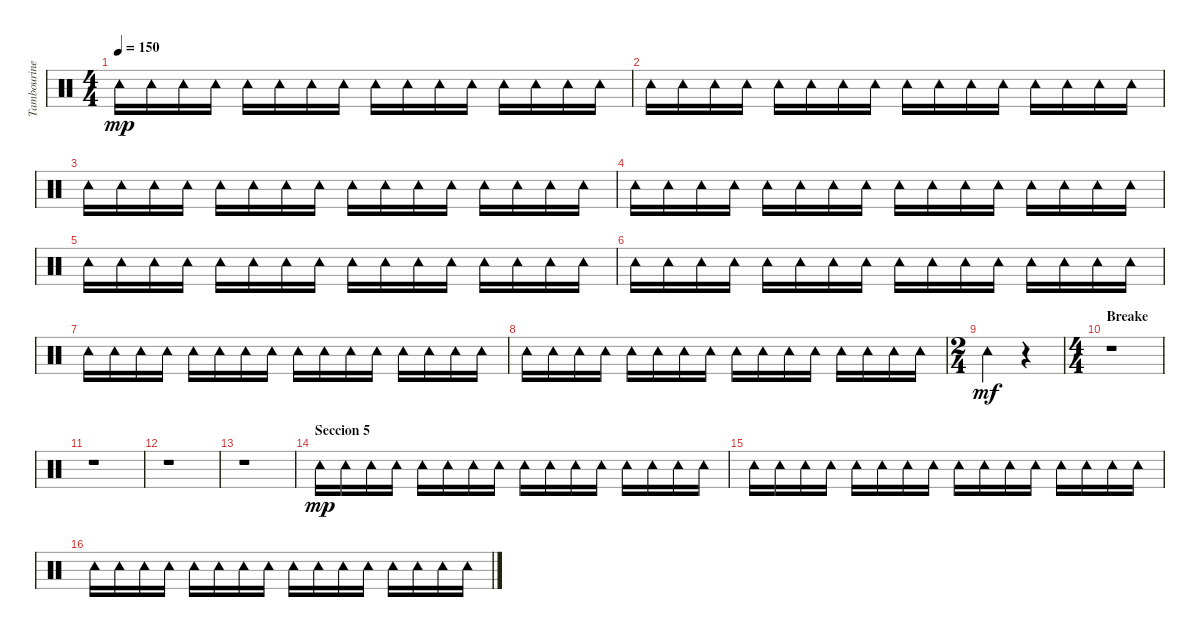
\track ("Tambourine" "Tambourine") {instrument percussion}
\staff {score}
\articulation defaults
\ts (4 4)
\tempo 150
\clef neutral
\ks c "Tambourine (hit)".16{dy mp} "Tambourine (hit)".16 "Tambourine (hit)".16 "Tambourine (hit)".16 "Tambourine (hit)".16 "Tambourine (hit)".16 "Tambourine (hit)".16 "Tambourine (hit)".16 "Tambourine (hit)".16 "Tambourine (hit)".16 "Tambourine (hit)".16 "Tambourine (hit)".16 "Tambourine (hit)".16 "Tambourine (hit)".16 "Tambourine (hit)".16 "Tambourine (hit)".16
|
"Tambourine (hit)".16 "Tambourine (hit)".16 "Tambourine (hit)".16 "Tambourine (hit)".16 "Tambourine (hit)".16 "Tambourine (hit)".16 "Tambourine (hit)".16 "Tambourine (hit)".16 "Tambourine (hit)".16 "Tambourine (hit)".16 "Tambourine (hit)".16 "Tambourine (hit)".16 "Tambourine (hit)".16 "Tambourine (hit)".16 "Tambourine (hit)".16 "Tambourine (hit)".16 |
"Tambourine (hit)".16 "Tambourine (hit)".16 "Tambourine (hit)".16 "Tambourine (hit)".16 "Tambourine (hit)".16 "Tambourine (hit)".16 "Tambourine (hit)".16 "Tambourine (hit)".16 "Tambourine (hit)".16 "Tambourine (hit)".16 "Tambourine (hit)".16 "Tambourine (hit)".16 "Tambourine (hit)".16 "Tambourine (hit)".16 "Tambourine (hit)".16 "Tambourine (hit)".16 |
"Tambourine (hit)".16 "Tambourine (hit)".16 "Tambourine (hit)".16 "Tambourine (hit)".16 "Tambourine (hit)".16 "Tambourine (hit)".16 "Tambourine (hit)".16 "Tambourine (hit)".16 "Tambourine (hit)".16 "Tambourine (hit)".16 "Tambourine (hit)".16 "Tambourine (hit)".16 "Tambourine (hit)".16 "Tambourine (hit)".16 "Tambourine (hit)".16 "Tambourine (hit)".16 |
"Tambourine (hit)".16 "Tambourine (hit)".16 "Tambourine (hit)".16 "Tambourine (hit)".16 "Tambourine (hit)".16 "Tambourine (hit)".16 "Tambourine (hit)".16 "Tambourine (hit)".16 "Tambourine (hit)".16 "Tambourine (hit)".16 "Tambourine (hit)".16 "Tambourine (hit)".16 "Tambourine (hit)".16 "Tambourine (hit)".16 "Tambourine (hit)".16 "Tambourine (hit)".16 |
"Tambourine (hit)".16 "Tambourine (hit)".16 "Tambourine (hit)".16 "Tambourine (hit)".16 "Tambourine (hit)".16 "Tambourine (hit)".16 "Tambourine (hit)".16 "Tambourine (hit)".16 "Tambourine (hit)".16 "Tambourine (hit)".16 "Tambourine (hit)".16 "Tambourine (hit)".16 "Tambourine (hit)".16 "Tambourine (hit)".16 "Tambourine (hit)".16 "Tambourine (hit)".16 |
"Tambourine (hit)".16 "Tambourine (hit)".16 "Tambourine (hit)".16 "Tambourine (hit)".16 "Tambourine (hit)".16 "Tambourine (hit)".16 "Tambourine (hit)".16 "Tambourine (hit)".16 "Tambourine (hit)".16 "Tambourine (hit)".16 "Tambourine (hit)".16 "Tambourine (hit)".16 "Tambourine (hit)".16 "Tambourine (hit)".16 "Tambourine (hit)".16 "Tambourine (hit)".16 |
"Tambourine (hit)".16 "Tambourine (hit)".16 "Tambourine (hit)".16 "Tambourine (hit)".16 "Tambourine (hit)".16 "Tambourine (hit)".16 "Tambourine (hit)".16 "Tambourine (hit)".16 "Tambourine (hit)".16 "Tambourine (hit)".16 "Tambourine (hit)".16 "Tambourine (hit)".16 "Tambourine (hit)".16 "Tambourine (hit)".16 "Tambourine (hit)".16 "Tambourine (hit)".16 |
\ts (2 4)
"Tambourine (hit)".4{dy mf} r.4 |
\ts (4 4)
\section ("" "Breake")
r.1 |
r.1 |
r.1 |
r.1 |
\section ("" "Seccion 5")
"Tambourine (hit)".16{dy mp} "Tambourine (hit)".16 "Tambourine (hit)".16 "Tambourine (hit)".16 "Tambourine (hit)".16 "Tambourine (hit)".16 "Tambourine (hit)".16 "Tambourine (hit)".16 "Tambourine (hit)".16 "Tambourine (hit)".16 "Tambourine (hit)".16 "Tambourine (hit)".16 "Tambourine (hit)".16 "Tambourine (hit)".16 "Tambourine (hit)".16 "Tambourine (hit)".16 |
"Tambourine (hit)".16 "Tambourine (hit)".16 "Tambourine (hit)".16 "Tambourine (hit)".16 "Tambourine (hit)".16 "Tambourine (hit)".16 "Tambourine (hit)".16 "Tambourine (hit)".16 "Tambourine (hit)".16 "Tambourine (hit)".16 "Tambourine (hit)".16 "Tambourine (hit)".16 "Tambourine (hit)".16 "Tambourine (hit)".16 "Tambourine (hit)".16 "Tambourine (hit)".16 |
"Tambourine (hit)".16 "Tambourine (hit)".16 "Tambourine (hit)".16 "Tambourine (hit)".16 "Tambourine (hit)".16 "Tambourine (hit)".16 "Tambourine (hit)".16 "Tambourine (hit)".16 "Tambourine (hit)".16 "Tambourine (hit)".16 "Tambourine (hit)".16 "Tambourine (hit)".16 "Tambourine (hit)".16 "Tambourine (hit)".16 "Tambourine (hit)".16 "Tambourine (hit)".16
